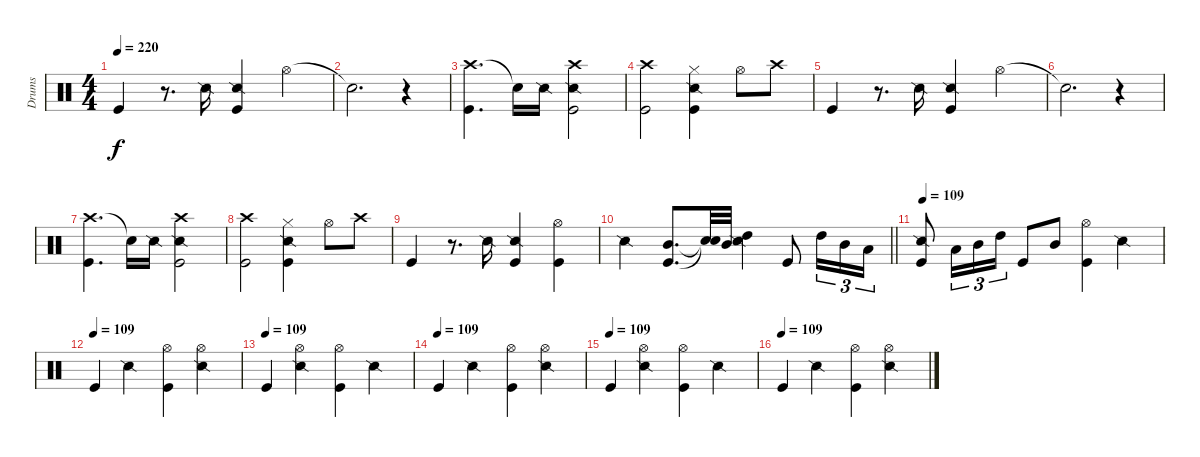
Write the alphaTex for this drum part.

\track ("Drums" "Drums") {instrument percussion}
\staff {score}
\articulation defaults
\ts (4 4)
\tempo 220
\clef neutral
\ks c "Kick (hit)".4{dy f}
r.8{d} "Snare (side stick) 2".16 ("Snare (side stick) 2" "Kick (hit)").4 "Hi-Hat (open)".4 |
"Snare (hit)"{t}.2{d} r.4 |
("Crash high (hit)" "Kick (hit)").4{d} "Snare (hit)"{t}.16 "Snare (side stick) 2".16 ("Crash high (hit)" "Snare (side stick) 2" "Kick (hit)").2 |
("Crash high (hit)" "Kick (hit)").2 ("Hi-Hat (closed)" "Snare (side stick) 2" "Kick (hit)").4 "Hi-Hat (open)".8 "Crash high (hit)".8 |
"Kick (hit)".4 r.8{d} "Snare (side stick) 2".16 ("Snare (side stick) 2" "Kick (hit)").4 "Hi-Hat (open)".4 |
"Snare (hit)"{t}.2{d} r.4 |
("Crash high (hit)" "Kick (hit)").4{d} "Snare (hit)"{t}.16 "Snare (side stick) 2".16 ("Crash high (hit)" "Snare (side stick) 2" "Kick (hit)").2 |
("Crash high (hit)" "Kick (hit)").2 ("Hi-Hat (closed)" "Snare (side stick) 2" "Kick (hit)").4 "Hi-Hat (open)".8 "Crash high (hit)".8 |
"Kick (hit)".4 r.8{d} "Snare (side stick) 2".16 ("Snare (side stick) 2" "Kick (hit)").4 ("Kick (hit)" "Hi-Hat (open)").4 |
\barLineRight lightlight "Snare (side stick) 2".4
("Kick (hit)" "Mid Tom (hit)").8{d} ("Snare (hit)"{t} "Snare (hit)"{t}).32 "Mid Tom (hit)".32 ("Snare (side stick) 2" "High Tom (hit)").4 "Kick (hit)".8 "High Tom (hit)".16{tu (3 2)} "Mid Tom (hit)".16{tu (3 2)} "Low Tom (hit)".16{tu (3 2)} |
\tempo 109
("Snare (side stick) 2" "Kick (hit)").8 "Low Tom (hit)".16{tu (3 2)} "Mid Tom (hit)".16{tu (3 2)} "High Tom (hit)".16{tu (3 2)} "Kick (hit)".8 "Mid Tom (hit)".8 ("Hi-Hat (open)" "Kick (hit)").4 "Snare (side stick) 2".4 |
\tempo (109)
"Kick (hit)".4 "Snare (side stick) 2".4 ("Hi-Hat (open)" "Kick (hit)").4 ("Hi-Hat (open)" "Snare (side stick) 2").4 |
\tempo (109)
"Kick (hit)".4 ("Hi-Hat (open)" "Snare (side stick) 2").4 ("Hi-Hat (open)" "Kick (hit)").4 "Snare (side stick) 2".4 |
\tempo (109)
"Kick (hit)".4 "Snare (side stick) 2".4 ("Hi-Hat (open)" "Kick (hit)").4 ("Hi-Hat (open)" "Snare (side stick) 2").4 |
\tempo (109)
"Kick (hit)".4 ("Hi-Hat (open)" "Snare (side stick) 2").4 ("Hi-Hat (open)" "Kick (hit)").4 "Snare (side stick) 2".4 |
\tempo (109)
"Kick (hit)".4 "Snare (side stick) 2".4 ("Hi-Hat (open)" "Kick (hit)").4 ("Hi-Hat (open)" "Snare (side stick) 2").4
